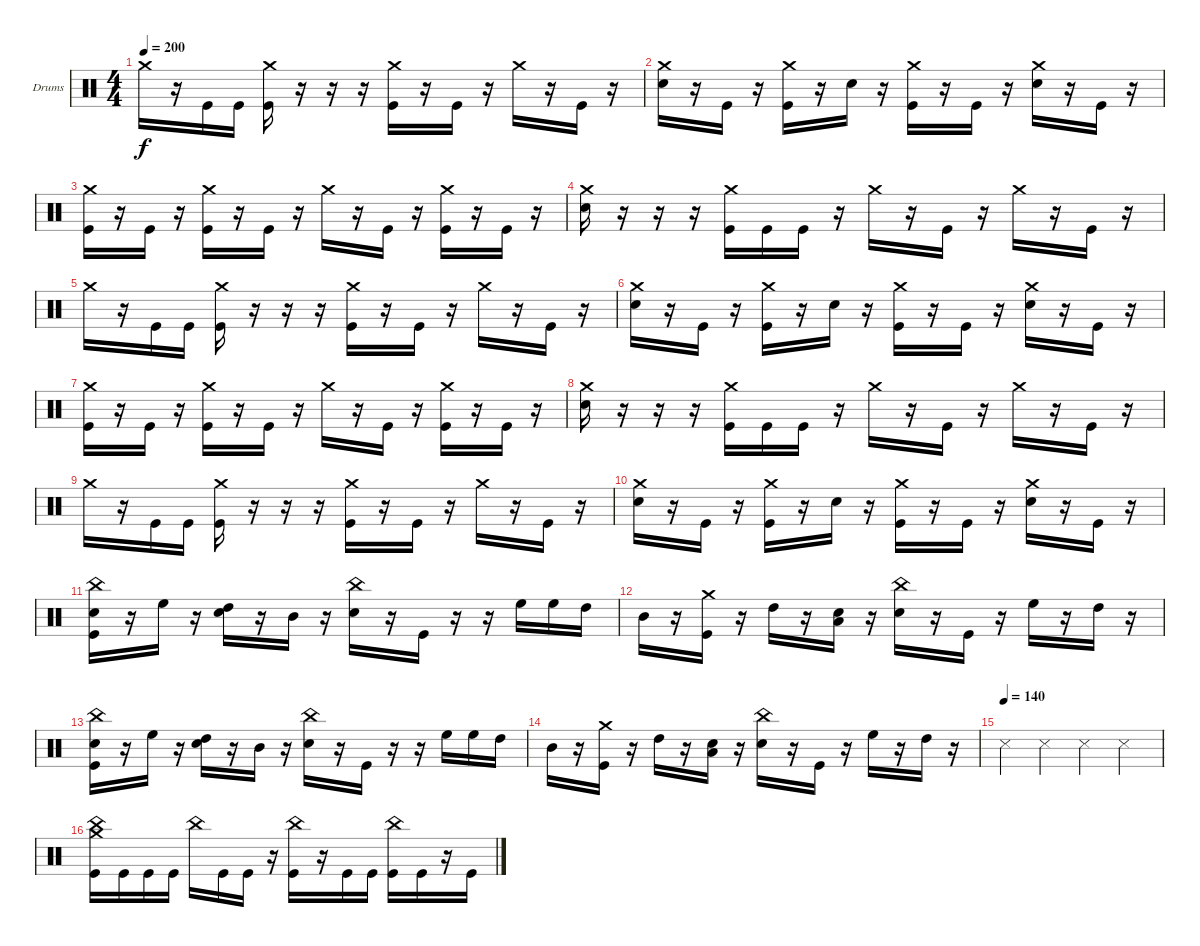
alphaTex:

\defaultSystemsLayout 4
\bracketExtendMode groupsimilarinstruments
\firstSystemTrackNameOrientation horizontal
\otherSystemsTrackNameOrientation horizontal
\track ("Drumkit" "Drums") {instrument percussion}
\staff {score}
\articulation defaults
\ts (4 4)
\tempo 200
\clef neutral
\ks c "Crash medium (hit)".16{dy f}
r.16 "Kick (hit)".16 "Kick (hit)".16 ("Kick (hit)" "Crash medium (hit)").16 r.16 r.16 r.16 ("Crash medium (hit)" "Kick (hit)").16 r.16 "Kick (hit)".16 r.16 "Crash medium (hit)".16 r.16 "Kick (hit)".16 r.16 |
("Snare (hit) 2" "Crash medium (hit)").16 r.16 "Kick (hit)".16 r.16 ("Kick (hit)" "Crash medium (hit)").16 r.16 "Snare (hit) 2".16 r.16 ("Kick (hit)" "Crash medium (hit)").16 r.16 "Kick (hit)".16 r.16 ("Snare (hit) 2" "Crash medium (hit)").16 r.16 "Kick (hit)".16 r.16 |
("Kick (hit)" "Crash medium (hit)").16 r.16 "Kick (hit)".16 r.16 ("Kick (hit)" "Crash medium (hit)").16 r.16 "Kick (hit)".16 r.16 "Crash medium (hit)".16 r.16 "Kick (hit)".16 r.16 ("Kick (hit)" "Crash medium (hit)").16 r.16 "Kick (hit)".16 r.16 |
("Snare (hit) 2" "Crash medium (hit)").16 r.16 r.16 r.16 ("Crash medium (hit)" "Kick (hit)").16 "Kick (hit)".16 "Kick (hit)".16 r.16 "Crash medium (hit)".16 r.16 "Kick (hit)".16 r.16 "Crash medium (hit)".16 r.16 "Kick (hit)".16 r.16 |
"Crash medium (hit)".16 r.16 "Kick (hit)".16 "Kick (hit)".16 ("Kick (hit)" "Crash medium (hit)").16 r.16 r.16 r.16 ("Crash medium (hit)" "Kick (hit)").16 r.16 "Kick (hit)".16 r.16 "Crash medium (hit)".16 r.16 "Kick (hit)".16 r.16 |
("Snare (hit) 2" "Crash medium (hit)").16 r.16 "Kick (hit)".16 r.16 ("Kick (hit)" "Crash medium (hit)").16 r.16 "Snare (hit) 2".16 r.16 ("Kick (hit)" "Crash medium (hit)").16 r.16 "Kick (hit)".16 r.16 ("Snare (hit) 2" "Crash medium (hit)").16 r.16 "Kick (hit)".16 r.16 |
("Kick (hit)" "Crash medium (hit)").16 r.16 "Kick (hit)".16 r.16 ("Kick (hit)" "Crash medium (hit)").16 r.16 "Kick (hit)".16 r.16 "Crash medium (hit)".16 r.16 "Kick (hit)".16 r.16 ("Kick (hit)" "Crash medium (hit)").16 r.16 "Kick (hit)".16 r.16 |
("Snare (hit) 2" "Crash medium (hit)").16 r.16 r.16 r.16 ("Crash medium (hit)" "Kick (hit)").16 "Kick (hit)".16 "Kick (hit)".16 r.16 "Crash medium (hit)".16 r.16 "Kick (hit)".16 r.16 "Crash medium (hit)".16 r.16 "Kick (hit)".16 r.16 |
"Crash medium (hit)".16 r.16 "Kick (hit)".16 "Kick (hit)".16 ("Kick (hit)" "Crash medium (hit)").16 r.16 r.16 r.16 ("Crash medium (hit)" "Kick (hit)").16 r.16 "Kick (hit)".16 r.16 "Crash medium (hit)".16 r.16 "Kick (hit)".16 r.16 |
("Snare (hit) 2" "Crash medium (hit)").16 r.16 "Kick (hit)".16 r.16 ("Kick (hit)" "Crash medium (hit)").16 r.16 "Snare (hit) 2".16 r.16 ("Kick (hit)" "Crash medium (hit)").16 r.16 "Kick (hit)".16 r.16 ("Snare (hit) 2" "Crash medium (hit)").16 r.16 "Kick (hit)".16 r.16 |
("Kick (hit)" "Snare (hit) 2" "China (hit)").16 r.16 "High Floor Tom (hit)".16 r.16 ("High Tom (hit)" "Snare (hit) 2").16 r.16 "Mid Tom (hit)".16 r.16 ("Snare (hit) 2" "China (hit)").16 r.16 "Kick (hit)".16 r.16 r.16 "High Floor Tom (hit)".16 "High Floor Tom (hit)".16 "High Tom (hit)".16 |
"Mid Tom (hit)".16 r.16 ("Kick (hit)" "Crash medium (hit)").16 r.16 "High Tom (hit)".16 r.16 ("Snare (hit) 2" "Low Tom (hit)").16 r.16 ("Snare (hit) 2" "China (hit)").16 r.16 "Kick (hit)".16 r.16 "High Floor Tom (hit)".16 r.16 "High Tom (hit)".16 r.16 |
("Kick (hit)" "Snare (hit) 2" "China (hit)").16 r.16 "High Floor Tom (hit)".16 r.16 ("High Tom (hit)" "Snare (hit) 2").16 r.16 "Mid Tom (hit)".16 r.16 ("Snare (hit) 2" "China (hit)").16 r.16 "Kick (hit)".16 r.16 r.16 "High Floor Tom (hit)".16 "High Floor Tom (hit)".16 "High Tom (hit)".16 |
"Mid Tom (hit)".16 r.16 ("Kick (hit)" "Crash medium (hit)").16 r.16 "High Tom (hit)".16 r.16 ("Snare (hit) 2" "Low Tom (hit)").16 r.16 ("Snare (hit) 2" "China (hit)").16 r.16 "Kick (hit)".16 r.16 "High Floor Tom (hit)".16 r.16 "High Tom (hit)".16 r.16 |
\tempo (140)
"Snare (side stick) 3".4 "Snare (side stick) 3".4 "Snare (side stick) 3".4 "Snare (side stick) 3".4 |
("Kick (hit)" "Crash medium (hit)" "China (hit)").16 "Kick (hit)".16 "Kick (hit)".16 "Kick (hit)".16 "China (hit)".16 "Kick (hit)".16 "Kick (hit)".16 r.16 ("Kick (hit)" "China (hit)").16 r.16 "Kick (hit)".16 "Kick (hit)".16 ("Kick (hit)" "China (hit)").16 "Kick (hit)".16 r.16 "Kick (hit)".16
